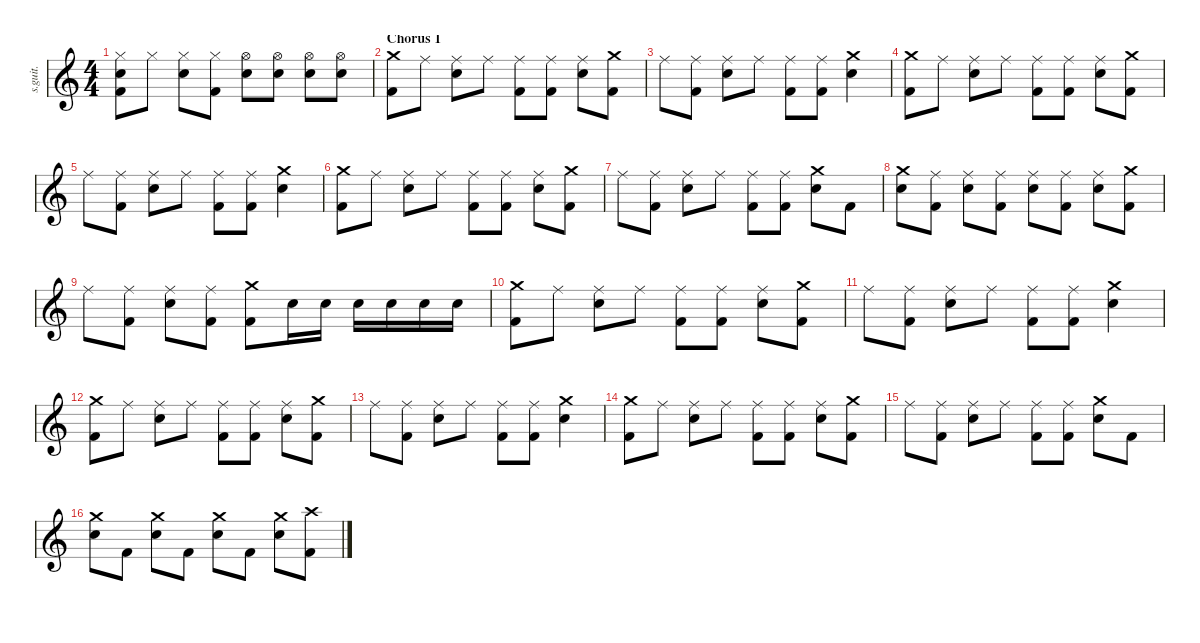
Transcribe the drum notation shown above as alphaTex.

\defaultSystemsLayout 4
\hideDynamics
\bracketExtendMode nobrackets
\track ("Earth" "s.guit.") {instrument percussion}
\staff {score}
\articulation defaults
\ts (4 4)
\tempo (130 hide)
\clef g2
\ks c
("Hi-Hat (closed)" "Snare (hit) 2" "Kick (hit) 2").8{lyrics (0 "") lyrics (1 "") lyrics (2 "") lyrics (3 "") lyrics (4 "") dy f} "Hi-Hat (closed)".8{lyrics (0 "") lyrics (1 "") lyrics (2 "") lyrics (3 "") lyrics (4 "")} ("Hi-Hat (closed)" "Snare (hit) 2").8{lyrics (0 "") lyrics (1 "") lyrics (2 "") lyrics (3 "") lyrics (4 "")} ("Hi-Hat (closed)" "Kick (hit) 2").8{lyrics (0 "") lyrics (1 "") lyrics (2 "") lyrics (3 "") lyrics (4 "")} ("Hi-Hat (open)" "Snare (hit) 2").8{lyrics (0 "") lyrics (1 "") lyrics (2 "") lyrics (3 "") lyrics (4 "")} ("Hi-Hat (open)" "Snare (hit) 2").8{lyrics (0 "") lyrics (1 "") lyrics (2 "") lyrics (3 "") lyrics (4 "")} ("Hi-Hat (open)" "Snare (hit) 2").8{lyrics (0 "") lyrics (1 "") lyrics (2 "") lyrics (3 "") lyrics (4 "")} ("Hi-Hat (open)" "Snare (hit) 2").8{lyrics (0 "") lyrics (1 "") lyrics (2 "") lyrics (3 "") lyrics (4 "")} |
\section ("" "Chorus 1")
("Crash medium (hit)" "Kick (hit) 2").8{lyrics (0 "") lyrics (1 "") lyrics (2 "") lyrics (3 "") lyrics (4 "")} "Ride (middle)".8{lyrics (0 "") lyrics (1 "") lyrics (2 "") lyrics (3 "") lyrics (4 "")} ("Ride (middle)" "Snare (hit) 2").8{lyrics (0 "") lyrics (1 "") lyrics (2 "") lyrics (3 "") lyrics (4 "")} "Ride (middle)".8{lyrics (0 "") lyrics (1 "") lyrics (2 "") lyrics (3 "") lyrics (4 "")} ("Ride (middle)" "Kick (hit) 2").8{lyrics (0 "") lyrics (1 "") lyrics (2 "") lyrics (3 "") lyrics (4 "")} ("Ride (middle)" "Kick (hit) 2").8{lyrics (0 "") lyrics (1 "") lyrics (2 "") lyrics (3 "") lyrics (4 "")} ("Ride (middle)" "Snare (hit) 2").8{lyrics (0 "") lyrics (1 "") lyrics (2 "") lyrics (3 "") lyrics (4 "")} ("Crash medium (hit)" "Kick (hit) 2").8{lyrics (0 "") lyrics (1 "") lyrics (2 "") lyrics (3 "") lyrics (4 "")} |
"Ride (middle)".8{lyrics (0 "") lyrics (1 "") lyrics (2 "") lyrics (3 "") lyrics (4 "")} ("Ride (middle)" "Kick (hit) 2").8{lyrics (0 "") lyrics (1 "") lyrics (2 "") lyrics (3 "") lyrics (4 "")} ("Ride (middle)" "Snare (hit) 2").8{lyrics (0 "") lyrics (1 "") lyrics (2 "") lyrics (3 "") lyrics (4 "")} "Ride (middle)".8{lyrics (0 "") lyrics (1 "") lyrics (2 "") lyrics (3 "") lyrics (4 "")} ("Ride (middle)" "Kick (hit) 2").8{lyrics (0 "") lyrics (1 "") lyrics (2 "") lyrics (3 "") lyrics (4 "")} ("Ride (middle)" "Kick (hit) 2").8{lyrics (0 "") lyrics (1 "") lyrics (2 "") lyrics (3 "") lyrics (4 "")} ("Crash medium (hit)" "Snare (hit) 2").4{lyrics (0 "") lyrics (1 "") lyrics (2 "") lyrics (3 "") lyrics (4 "")} |
("Crash medium (hit)" "Kick (hit) 2").8{lyrics (0 "") lyrics (1 "") lyrics (2 "") lyrics (3 "") lyrics (4 "")} "Ride (middle)".8{lyrics (0 "") lyrics (1 "") lyrics (2 "") lyrics (3 "") lyrics (4 "")} ("Ride (middle)" "Snare (hit) 2").8{lyrics (0 "") lyrics (1 "") lyrics (2 "") lyrics (3 "") lyrics (4 "")} "Ride (middle)".8{lyrics (0 "") lyrics (1 "") lyrics (2 "") lyrics (3 "") lyrics (4 "")} ("Ride (middle)" "Kick (hit) 2").8{lyrics (0 "") lyrics (1 "") lyrics (2 "") lyrics (3 "") lyrics (4 "")} ("Ride (middle)" "Kick (hit) 2").8{lyrics (0 "") lyrics (1 "") lyrics (2 "") lyrics (3 "") lyrics (4 "")} ("Ride (middle)" "Snare (hit) 2").8{lyrics (0 "") lyrics (1 "") lyrics (2 "") lyrics (3 "") lyrics (4 "")} ("Crash medium (hit)" "Kick (hit) 2").8{lyrics (0 "") lyrics (1 "") lyrics (2 "") lyrics (3 "") lyrics (4 "")} |
"Ride (middle)".8{lyrics (0 "") lyrics (1 "") lyrics (2 "") lyrics (3 "") lyrics (4 "")} ("Ride (middle)" "Kick (hit) 2").8{lyrics (0 "") lyrics (1 "") lyrics (2 "") lyrics (3 "") lyrics (4 "")} ("Ride (middle)" "Snare (hit) 2").8{lyrics (0 "") lyrics (1 "") lyrics (2 "") lyrics (3 "") lyrics (4 "")} "Ride (middle)".8{lyrics (0 "") lyrics (1 "") lyrics (2 "") lyrics (3 "") lyrics (4 "")} ("Ride (middle)" "Kick (hit) 2").8{lyrics (0 "") lyrics (1 "") lyrics (2 "") lyrics (3 "") lyrics (4 "")} ("Ride (middle)" "Kick (hit) 2").8{lyrics (0 "") lyrics (1 "") lyrics (2 "") lyrics (3 "") lyrics (4 "")} ("Crash medium (hit)" "Snare (hit) 2").4{lyrics (0 "") lyrics (1 "") lyrics (2 "") lyrics (3 "") lyrics (4 "")} |
("Crash medium (hit)" "Kick (hit) 2").8{lyrics (0 "") lyrics (1 "") lyrics (2 "") lyrics (3 "") lyrics (4 "")} "Ride (middle)".8{lyrics (0 "") lyrics (1 "") lyrics (2 "") lyrics (3 "") lyrics (4 "")} ("Ride (middle)" "Snare (hit) 2").8{lyrics (0 "") lyrics (1 "") lyrics (2 "") lyrics (3 "") lyrics (4 "")} "Ride (middle)".8{lyrics (0 "") lyrics (1 "") lyrics (2 "") lyrics (3 "") lyrics (4 "")} ("Ride (middle)" "Kick (hit) 2").8{lyrics (0 "") lyrics (1 "") lyrics (2 "") lyrics (3 "") lyrics (4 "")} ("Ride (middle)" "Kick (hit) 2").8{lyrics (0 "") lyrics (1 "") lyrics (2 "") lyrics (3 "") lyrics (4 "")} ("Ride (middle)" "Snare (hit) 2").8{lyrics (0 "") lyrics (1 "") lyrics (2 "") lyrics (3 "") lyrics (4 "")} ("Crash medium (hit)" "Kick (hit) 2").8{lyrics (0 "") lyrics (1 "") lyrics (2 "") lyrics (3 "") lyrics (4 "")} |
"Ride (middle)".8{lyrics (0 "") lyrics (1 "") lyrics (2 "") lyrics (3 "") lyrics (4 "")} ("Ride (middle)" "Kick (hit) 2").8{lyrics (0 "") lyrics (1 "") lyrics (2 "") lyrics (3 "") lyrics (4 "")} ("Ride (middle)" "Snare (hit) 2").8{lyrics (0 "") lyrics (1 "") lyrics (2 "") lyrics (3 "") lyrics (4 "")} "Ride (middle)".8{lyrics (0 "") lyrics (1 "") lyrics (2 "") lyrics (3 "") lyrics (4 "")} ("Ride (middle)" "Kick (hit) 2").8{lyrics (0 "") lyrics (1 "") lyrics (2 "") lyrics (3 "") lyrics (4 "")} ("Ride (middle)" "Kick (hit) 2").8{lyrics (0 "") lyrics (1 "") lyrics (2 "") lyrics (3 "") lyrics (4 "")} ("Crash medium (hit)" "Snare (hit) 2").8{lyrics (0 "") lyrics (1 "") lyrics (2 "") lyrics (3 "") lyrics (4 "")} "Kick (hit) 2".8{lyrics (0 "") lyrics (1 "") lyrics (2 "") lyrics (3 "") lyrics (4 "")} |
("Crash medium (hit)" "Snare (hit) 2").8{lyrics (0 "") lyrics (1 "") lyrics (2 "") lyrics (3 "") lyrics (4 "")} ("Ride (middle)" "Kick (hit) 2").8{lyrics (0 "") lyrics (1 "") lyrics (2 "") lyrics (3 "") lyrics (4 "")} ("Ride (middle)" "Snare (hit) 2").8{lyrics (0 "") lyrics (1 "") lyrics (2 "") lyrics (3 "") lyrics (4 "")} ("Ride (middle)" "Kick (hit) 2").8{lyrics (0 "") lyrics (1 "") lyrics (2 "") lyrics (3 "") lyrics (4 "")} ("Ride (middle)" "Snare (hit) 2").8{lyrics (0 "") lyrics (1 "") lyrics (2 "") lyrics (3 "") lyrics (4 "")} ("Ride (middle)" "Kick (hit) 2").8{lyrics (0 "") lyrics (1 "") lyrics (2 "") lyrics (3 "") lyrics (4 "")} ("Ride (middle)" "Snare (hit) 2").8{lyrics (0 "") lyrics (1 "") lyrics (2 "") lyrics (3 "") lyrics (4 "")} ("Crash medium (hit)" "Kick (hit) 2").8{lyrics (0 "") lyrics (1 "") lyrics (2 "") lyrics (3 "") lyrics (4 "")} |
"Ride (middle)".8{lyrics (0 "") lyrics (1 "") lyrics (2 "") lyrics (3 "") lyrics (4 "")} ("Ride (middle)" "Kick (hit) 2").8{lyrics (0 "") lyrics (1 "") lyrics (2 "") lyrics (3 "") lyrics (4 "")} ("Ride (middle)" "Snare (hit) 2").8{lyrics (0 "") lyrics (1 "") lyrics (2 "") lyrics (3 "") lyrics (4 "")} ("Ride (middle)" "Kick (hit) 2").8{lyrics (0 "") lyrics (1 "") lyrics (2 "") lyrics (3 "") lyrics (4 "")} ("Crash medium (hit)" "Kick (hit) 2").8{lyrics (0 "") lyrics (1 "") lyrics (2 "") lyrics (3 "") lyrics (4 "")} "Snare (hit) 2".16{lyrics (0 "") lyrics (1 "") lyrics (2 "") lyrics (3 "") lyrics (4 "")} "Snare (hit) 2".16{lyrics (0 "") lyrics (1 "") lyrics (2 "") lyrics (3 "") lyrics (4 "")} "Snare (hit) 2".16{lyrics (0 "") lyrics (1 "") lyrics (2 "") lyrics (3 "") lyrics (4 "")} "Snare (hit) 2".16{lyrics (0 "") lyrics (1 "") lyrics (2 "") lyrics (3 "") lyrics (4 "")} "Snare (hit) 2".16{lyrics (0 "") lyrics (1 "") lyrics (2 "") lyrics (3 "") lyrics (4 "")} "Snare (hit) 2".16{lyrics (0 "") lyrics (1 "") lyrics (2 "") lyrics (3 "") lyrics (4 "")} |
("Crash medium (hit)" "Kick (hit) 2").8{lyrics (0 "") lyrics (1 "") lyrics (2 "") lyrics (3 "") lyrics (4 "")} "Ride (middle)".8{lyrics (0 "") lyrics (1 "") lyrics (2 "") lyrics (3 "") lyrics (4 "")} ("Ride (middle)" "Snare (hit) 2").8{lyrics (0 "") lyrics (1 "") lyrics (2 "") lyrics (3 "") lyrics (4 "")} "Ride (middle)".8{lyrics (0 "") lyrics (1 "") lyrics (2 "") lyrics (3 "") lyrics (4 "")} ("Ride (middle)" "Kick (hit) 2").8{lyrics (0 "") lyrics (1 "") lyrics (2 "") lyrics (3 "") lyrics (4 "")} ("Ride (middle)" "Kick (hit) 2").8{lyrics (0 "") lyrics (1 "") lyrics (2 "") lyrics (3 "") lyrics (4 "")} ("Ride (middle)" "Snare (hit) 2").8{lyrics (0 "") lyrics (1 "") lyrics (2 "") lyrics (3 "") lyrics (4 "")} ("Crash medium (hit)" "Kick (hit) 2").8{lyrics (0 "") lyrics (1 "") lyrics (2 "") lyrics (3 "") lyrics (4 "")} |
"Ride (middle)".8{lyrics (0 "") lyrics (1 "") lyrics (2 "") lyrics (3 "") lyrics (4 "")} ("Ride (middle)" "Kick (hit) 2").8{lyrics (0 "") lyrics (1 "") lyrics (2 "") lyrics (3 "") lyrics (4 "")} ("Ride (middle)" "Snare (hit) 2").8{lyrics (0 "") lyrics (1 "") lyrics (2 "") lyrics (3 "") lyrics (4 "")} "Ride (middle)".8{lyrics (0 "") lyrics (1 "") lyrics (2 "") lyrics (3 "") lyrics (4 "")} ("Ride (middle)" "Kick (hit) 2").8{lyrics (0 "") lyrics (1 "") lyrics (2 "") lyrics (3 "") lyrics (4 "")} ("Ride (middle)" "Kick (hit) 2").8{lyrics (0 "") lyrics (1 "") lyrics (2 "") lyrics (3 "") lyrics (4 "")} ("Crash medium (hit)" "Snare (hit) 2").4{lyrics (0 "") lyrics (1 "") lyrics (2 "") lyrics (3 "") lyrics (4 "")} |
("Crash medium (hit)" "Kick (hit) 2").8{lyrics (0 "") lyrics (1 "") lyrics (2 "") lyrics (3 "") lyrics (4 "")} "Ride (middle)".8{lyrics (0 "") lyrics (1 "") lyrics (2 "") lyrics (3 "") lyrics (4 "")} ("Ride (middle)" "Snare (hit) 2").8{lyrics (0 "") lyrics (1 "") lyrics (2 "") lyrics (3 "") lyrics (4 "")} "Ride (middle)".8{lyrics (0 "") lyrics (1 "") lyrics (2 "") lyrics (3 "") lyrics (4 "")} ("Ride (middle)" "Kick (hit) 2").8{lyrics (0 "") lyrics (1 "") lyrics (2 "") lyrics (3 "") lyrics (4 "")} ("Ride (middle)" "Kick (hit) 2").8{lyrics (0 "") lyrics (1 "") lyrics (2 "") lyrics (3 "") lyrics (4 "")} ("Ride (middle)" "Snare (hit) 2").8{lyrics (0 "") lyrics (1 "") lyrics (2 "") lyrics (3 "") lyrics (4 "")} ("Crash medium (hit)" "Kick (hit) 2").8{lyrics (0 "") lyrics (1 "") lyrics (2 "") lyrics (3 "") lyrics (4 "")} |
"Ride (middle)".8{lyrics (0 "") lyrics (1 "") lyrics (2 "") lyrics (3 "") lyrics (4 "")} ("Ride (middle)" "Kick (hit) 2").8{lyrics (0 "") lyrics (1 "") lyrics (2 "") lyrics (3 "") lyrics (4 "")} ("Ride (middle)" "Snare (hit) 2").8{lyrics (0 "") lyrics (1 "") lyrics (2 "") lyrics (3 "") lyrics (4 "")} "Ride (middle)".8{lyrics (0 "") lyrics (1 "") lyrics (2 "") lyrics (3 "") lyrics (4 "")} ("Ride (middle)" "Kick (hit) 2").8{lyrics (0 "") lyrics (1 "") lyrics (2 "") lyrics (3 "") lyrics (4 "")} ("Ride (middle)" "Kick (hit) 2").8{lyrics (0 "") lyrics (1 "") lyrics (2 "") lyrics (3 "") lyrics (4 "")} ("Crash medium (hit)" "Snare (hit) 2").4{lyrics (0 "") lyrics (1 "") lyrics (2 "") lyrics (3 "") lyrics (4 "")} |
("Crash medium (hit)" "Kick (hit) 2").8{lyrics (0 "") lyrics (1 "") lyrics (2 "") lyrics (3 "") lyrics (4 "")} "Ride (middle)".8{lyrics (0 "") lyrics (1 "") lyrics (2 "") lyrics (3 "") lyrics (4 "")} ("Ride (middle)" "Snare (hit) 2").8{lyrics (0 "") lyrics (1 "") lyrics (2 "") lyrics (3 "") lyrics (4 "")} "Ride (middle)".8{lyrics (0 "") lyrics (1 "") lyrics (2 "") lyrics (3 "") lyrics (4 "")} ("Ride (middle)" "Kick (hit) 2").8{lyrics (0 "") lyrics (1 "") lyrics (2 "") lyrics (3 "") lyrics (4 "")} ("Ride (middle)" "Kick (hit) 2").8{lyrics (0 "") lyrics (1 "") lyrics (2 "") lyrics (3 "") lyrics (4 "")} ("Ride (middle)" "Snare (hit) 2").8{lyrics (0 "") lyrics (1 "") lyrics (2 "") lyrics (3 "") lyrics (4 "")} ("Crash medium (hit)" "Kick (hit) 2").8{lyrics (0 "") lyrics (1 "") lyrics (2 "") lyrics (3 "") lyrics (4 "")} |
"Ride (middle)".8{lyrics (0 "") lyrics (1 "") lyrics (2 "") lyrics (3 "") lyrics (4 "")} ("Ride (middle)" "Kick (hit) 2").8{lyrics (0 "") lyrics (1 "") lyrics (2 "") lyrics (3 "") lyrics (4 "")} ("Ride (middle)" "Snare (hit) 2").8{lyrics (0 "") lyrics (1 "") lyrics (2 "") lyrics (3 "") lyrics (4 "")} "Ride (middle)".8{lyrics (0 "") lyrics (1 "") lyrics (2 "") lyrics (3 "") lyrics (4 "")} ("Ride (middle)" "Kick (hit) 2").8{lyrics (0 "") lyrics (1 "") lyrics (2 "") lyrics (3 "") lyrics (4 "")} ("Ride (middle)" "Kick (hit) 2").8{lyrics (0 "") lyrics (1 "") lyrics (2 "") lyrics (3 "") lyrics (4 "")} ("Crash medium (hit)" "Snare (hit) 2").8{lyrics (0 "") lyrics (1 "") lyrics (2 "") lyrics (3 "") lyrics (4 "")} "Kick (hit) 2".8{lyrics (0 "") lyrics (1 "") lyrics (2 "") lyrics (3 "") lyrics (4 "")} |
("Crash medium (hit)" "Snare (hit) 2").8{lyrics (0 "") lyrics (1 "") lyrics (2 "") lyrics (3 "") lyrics (4 "")} "Kick (hit) 2".8{lyrics (0 "") lyrics (1 "") lyrics (2 "") lyrics (3 "") lyrics (4 "")} ("Crash medium (hit)" "Snare (hit) 2").8{lyrics (0 "") lyrics (1 "") lyrics (2 "") lyrics (3 "") lyrics (4 "")} "Kick (hit) 2".8{lyrics (0 "") lyrics (1 "") lyrics (2 "") lyrics (3 "") lyrics (4 "")} ("Crash medium (hit)" "Snare (hit) 2").8{lyrics (0 "") lyrics (1 "") lyrics (2 "") lyrics (3 "") lyrics (4 "")} "Kick (hit) 2".8{lyrics (0 "") lyrics (1 "") lyrics (2 "") lyrics (3 "") lyrics (4 "")} ("Crash medium (hit)" "Snare (hit) 2").8{lyrics (0 "") lyrics (1 "") lyrics (2 "") lyrics (3 "") lyrics (4 "")} ("Crash high (hit)" "Kick (hit) 2").8{lyrics (0 "") lyrics (1 "") lyrics (2 "") lyrics (3 "") lyrics (4 "")}
